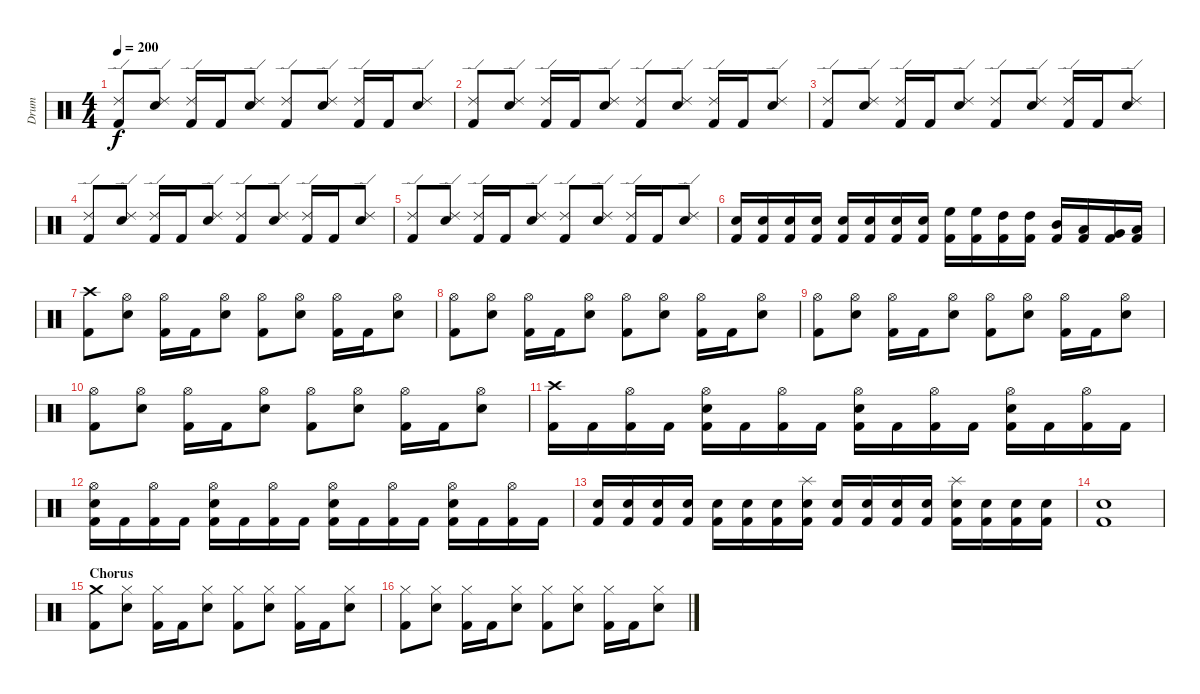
\track ("Drum" "Drum") {instrument percussion}
\staff {score}
\articulation defaults
\ts (4 4)
\tempo 200
\clef neutral
\ks c
("Kick (hit) 2" "Ride (edge) 2").8{dy f} ("Snare (hit) 2" "Ride (edge) 2").8 ("Kick (hit) 2" "Ride (edge) 2").16 "Kick (hit) 2".16 ("Snare (hit) 2" "Ride (edge) 2").8 ("Kick (hit) 2" "Ride (edge) 2").8 ("Snare (hit) 2" "Ride (edge) 2").8 ("Kick (hit) 2" "Ride (edge) 2").16 "Kick (hit) 2".16 ("Snare (hit) 2" "Ride (edge) 2").8 |
("Kick (hit) 2" "Ride (edge) 2").8 ("Snare (hit) 2" "Ride (edge) 2").8 ("Kick (hit) 2" "Ride (edge) 2").16 "Kick (hit) 2".16 ("Snare (hit) 2" "Ride (edge) 2").8 ("Kick (hit) 2" "Ride (edge) 2").8 ("Snare (hit) 2" "Ride (edge) 2").8 ("Kick (hit) 2" "Ride (edge) 2").16 "Kick (hit) 2".16 ("Snare (hit) 2" "Ride (edge) 2").8 |
("Kick (hit) 2" "Ride (edge) 2").8 ("Snare (hit) 2" "Ride (edge) 2").8 ("Kick (hit) 2" "Ride (edge) 2").16 "Kick (hit) 2".16 ("Snare (hit) 2" "Ride (edge) 2").8 ("Kick (hit) 2" "Ride (edge) 2").8 ("Snare (hit) 2" "Ride (edge) 2").8 ("Kick (hit) 2" "Ride (edge) 2").16 "Kick (hit) 2".16 ("Snare (hit) 2" "Ride (edge) 2").8 |
("Kick (hit) 2" "Ride (edge) 2").8 ("Snare (hit) 2" "Ride (edge) 2").8 ("Kick (hit) 2" "Ride (edge) 2").16 "Kick (hit) 2".16 ("Snare (hit) 2" "Ride (edge) 2").8 ("Kick (hit) 2" "Ride (edge) 2").8 ("Snare (hit) 2" "Ride (edge) 2").8 ("Kick (hit) 2" "Ride (edge) 2").16 "Kick (hit) 2".16 ("Snare (hit) 2" "Ride (edge) 2").8 |
("Kick (hit) 2" "Ride (edge) 2").8 ("Snare (hit) 2" "Ride (edge) 2").8 ("Kick (hit) 2" "Ride (edge) 2").16 "Kick (hit) 2".16 ("Snare (hit) 2" "Ride (edge) 2").8 ("Kick (hit) 2" "Ride (edge) 2").8 ("Snare (hit) 2" "Ride (edge) 2").8 ("Kick (hit) 2" "Ride (edge) 2").16 "Kick (hit) 2".16 ("Snare (hit) 2" "Ride (edge) 2").8 |
("Kick (hit) 2" "Snare (hit) 2").16 ("Kick (hit) 2" "Snare (hit) 2").16 ("Kick (hit) 2" "Snare (hit) 2").16 ("Kick (hit) 2" "Snare (hit) 2").16 ("Kick (hit) 2" "Snare (hit) 2").16 ("Kick (hit) 2" "Snare (hit) 2").16 ("Kick (hit) 2" "Snare (hit) 2").16 ("Kick (hit) 2" "Snare (hit) 2").16 ("Kick (hit) 2" "High Floor Tom (hit)").16 ("Kick (hit) 2" "High Floor Tom (hit)").16 ("Kick (hit) 2" "High Tom (hit)").16 ("Kick (hit) 2" "High Tom (hit)").16 ("Kick (hit) 2" "Mid Tom (hit)").16 ("Kick (hit) 2" "Low Tom (hit)").16 ("Kick (hit) 2" "Very Low Tom (hit)").16 ("Kick (hit) 2" "Low Floor Tom (hit)").16 |
("Kick (hit) 2" "Crash high (hit)").8 ("Snare (hit) 2" "Hi-Hat (open)").8 ("Kick (hit) 2" "Hi-Hat (open)").16 "Kick (hit) 2".16 ("Snare (hit) 2" "Hi-Hat (open)").8 ("Kick (hit) 2" "Hi-Hat (open)").8 ("Snare (hit) 2" "Hi-Hat (open)").8 ("Kick (hit) 2" "Hi-Hat (open)").16 "Kick (hit) 2".16 ("Snare (hit) 2" "Hi-Hat (open)").8 |
("Kick (hit) 2" "Hi-Hat (open)").8 ("Snare (hit) 2" "Hi-Hat (open)").8 ("Kick (hit) 2" "Hi-Hat (open)").16 "Kick (hit) 2".16 ("Snare (hit) 2" "Hi-Hat (open)").8 ("Kick (hit) 2" "Hi-Hat (open)").8 ("Snare (hit) 2" "Hi-Hat (open)").8 ("Kick (hit) 2" "Hi-Hat (open)").16 "Kick (hit) 2".16 ("Snare (hit) 2" "Hi-Hat (open)").8 |
("Kick (hit) 2" "Hi-Hat (open)").8 ("Snare (hit) 2" "Hi-Hat (open)").8 ("Kick (hit) 2" "Hi-Hat (open)").16 "Kick (hit) 2".16 ("Snare (hit) 2" "Hi-Hat (open)").8 ("Kick (hit) 2" "Hi-Hat (open)").8 ("Snare (hit) 2" "Hi-Hat (open)").8 ("Kick (hit) 2" "Hi-Hat (open)").16 "Kick (hit) 2".16 ("Snare (hit) 2" "Hi-Hat (open)").8 |
("Kick (hit) 2" "Hi-Hat (open)").8 ("Snare (hit) 2" "Hi-Hat (open)").8 ("Kick (hit) 2" "Hi-Hat (open)").16 "Kick (hit) 2".16 ("Snare (hit) 2" "Hi-Hat (open)").8 ("Kick (hit) 2" "Hi-Hat (open)").8 ("Snare (hit) 2" "Hi-Hat (open)").8 ("Kick (hit) 2" "Hi-Hat (open)").16 "Kick (hit) 2".16 ("Snare (hit) 2" "Hi-Hat (open)").8 |
("Kick (hit) 2" "Crash high (hit)").16 "Kick (hit) 2".16 ("Kick (hit) 2" "Hi-Hat (open)").16 "Kick (hit) 2".16 ("Kick (hit) 2" "Snare (hit) 2" "Hi-Hat (open)").16 "Kick (hit) 2".16 ("Kick (hit) 2" "Hi-Hat (open)").16 "Kick (hit) 2".16 ("Kick (hit) 2" "Snare (hit) 2" "Hi-Hat (open)").16 "Kick (hit) 2".16 ("Kick (hit) 2" "Hi-Hat (open)").16 "Kick (hit) 2".16 ("Kick (hit) 2" "Snare (hit) 2" "Hi-Hat (open)").16 "Kick (hit) 2".16 ("Kick (hit) 2" "Hi-Hat (open)").16 "Kick (hit) 2".16 |
("Kick (hit) 2" "Snare (hit) 2" "Hi-Hat (open)").16 "Kick (hit) 2".16 ("Kick (hit) 2" "Hi-Hat (open)").16 "Kick (hit) 2".16 ("Kick (hit) 2" "Snare (hit) 2" "Hi-Hat (open)").16 "Kick (hit) 2".16 ("Kick (hit) 2" "Hi-Hat (open)").16 "Kick (hit) 2".16 ("Kick (hit) 2" "Snare (hit) 2" "Hi-Hat (open)").16 "Kick (hit) 2".16 ("Kick (hit) 2" "Hi-Hat (open)").16 "Kick (hit) 2".16 ("Kick (hit) 2" "Snare (hit) 2" "Hi-Hat (open)").16 "Kick (hit) 2".16 ("Kick (hit) 2" "Hi-Hat (open)").16 "Kick (hit) 2".16 |
("Kick (hit) 2" "Snare (hit) 2").16 ("Kick (hit) 2" "Snare (hit) 2").16 ("Kick (hit) 2" "Snare (hit) 2").16 ("Kick (hit) 2" "Snare (hit) 2").16 ("Kick (hit) 2" "Snare (hit) 2").16 ("Kick (hit) 2" "Snare (hit) 2").16 ("Kick (hit) 2" "Snare (hit) 2").16 ("Kick (hit) 2" "Snare (hit) 2" "Splash (hit)").16 ("Kick (hit) 2" "Snare (hit) 2").16 ("Kick (hit) 2" "Snare (hit) 2").16 ("Kick (hit) 2" "Snare (hit) 2").16 ("Kick (hit) 2" "Snare (hit) 2").16 ("Kick (hit) 2" "Snare (hit) 2" "Splash (hit)").16 ("Kick (hit) 2" "Snare (hit) 2").16 ("Kick (hit) 2" "Snare (hit) 2").16 ("Kick (hit) 2" "Snare (hit) 2").16 |
("Kick (hit) 2" "Snare (hit) 2").1 |
\section ("" "Chorus")
("Kick (hit) 2" "Crash medium (hit)").8 ("Snare (hit) 2" "Hi-Hat (closed)").8 ("Kick (hit) 2" "Hi-Hat (closed)").16 "Kick (hit) 2".16 ("Snare (hit) 2" "Hi-Hat (closed)").8 ("Kick (hit) 2" "Hi-Hat (closed)").8 ("Snare (hit) 2" "Hi-Hat (closed)").8 ("Kick (hit) 2" "Hi-Hat (closed)").16 "Kick (hit) 2".16 ("Snare (hit) 2" "Hi-Hat (closed)").8 |
("Kick (hit) 2" "Hi-Hat (closed)").8 ("Snare (hit) 2" "Hi-Hat (closed)").8 ("Kick (hit) 2" "Hi-Hat (closed)").16 "Kick (hit) 2".16 ("Snare (hit) 2" "Hi-Hat (closed)").8 ("Kick (hit) 2" "Hi-Hat (closed)").8 ("Snare (hit) 2" "Hi-Hat (closed)").8 ("Kick (hit) 2" "Hi-Hat (closed)").16 "Kick (hit) 2".16 ("Snare (hit) 2" "Hi-Hat (closed)").8
